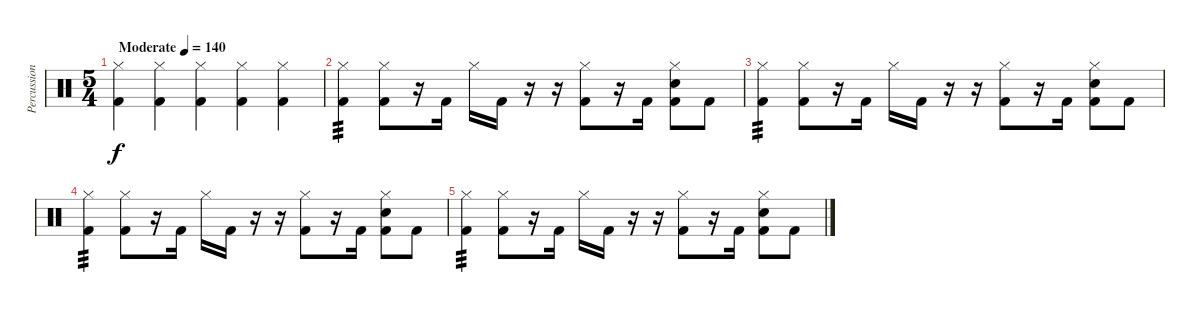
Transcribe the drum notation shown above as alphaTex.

\track ("Percussion" "Percussion") {instrument percussion}
\staff {score}
\articulation defaults
\ts (5 4)
\tempo (140 "Moderate")
\clef neutral
\ks c
("Hi-Hat (closed)" "Kick (hit) 2").4{dy f} ("Hi-Hat (closed)" "Kick (hit) 2").4 ("Hi-Hat (closed)" "Kick (hit) 2").4 ("Hi-Hat (closed)" "Kick (hit) 2").4 ("Hi-Hat (closed)" "Kick (hit) 2").4 |
("Hi-Hat (closed)" "Kick (hit) 2").4{tp 3} ("Hi-Hat (closed)" "Kick (hit) 2").8 r.16 "Kick (hit) 2".16 "Hi-Hat (closed)".16 "Kick (hit) 2".16 r.16 r.16 ("Hi-Hat (closed)" "Kick (hit) 2").8 r.16 "Kick (hit) 2".16 ("Hi-Hat (closed)" "Electric Snare (hit)" "Kick (hit) 2").8 "Kick (hit) 2".8 |
("Hi-Hat (closed)" "Kick (hit) 2").4{tp 3} ("Hi-Hat (closed)" "Kick (hit) 2").8 r.16 "Kick (hit) 2".16 "Hi-Hat (closed)".16 "Kick (hit) 2".16 r.16 r.16 ("Hi-Hat (closed)" "Kick (hit) 2").8 r.16 "Kick (hit) 2".16 ("Hi-Hat (closed)" "Electric Snare (hit)" "Kick (hit) 2").8 "Kick (hit) 2".8 |
("Hi-Hat (closed)" "Kick (hit) 2").4{tp 3} ("Hi-Hat (closed)" "Kick (hit) 2").8 r.16 "Kick (hit) 2".16 "Hi-Hat (closed)".16 "Kick (hit) 2".16 r.16 r.16 ("Hi-Hat (closed)" "Kick (hit) 2").8 r.16 "Kick (hit) 2".16 ("Hi-Hat (closed)" "Electric Snare (hit)" "Kick (hit) 2").8 "Kick (hit) 2".8 |
("Hi-Hat (closed)" "Kick (hit) 2").4{tp 3} ("Hi-Hat (closed)" "Kick (hit) 2").8 r.16 "Kick (hit) 2".16 "Hi-Hat (closed)".16 "Kick (hit) 2".16 r.16 r.16 ("Hi-Hat (closed)" "Kick (hit) 2").8 r.16 "Kick (hit) 2".16 ("Hi-Hat (closed)" "Electric Snare (hit)" "Kick (hit) 2").8 "Kick (hit) 2".8
